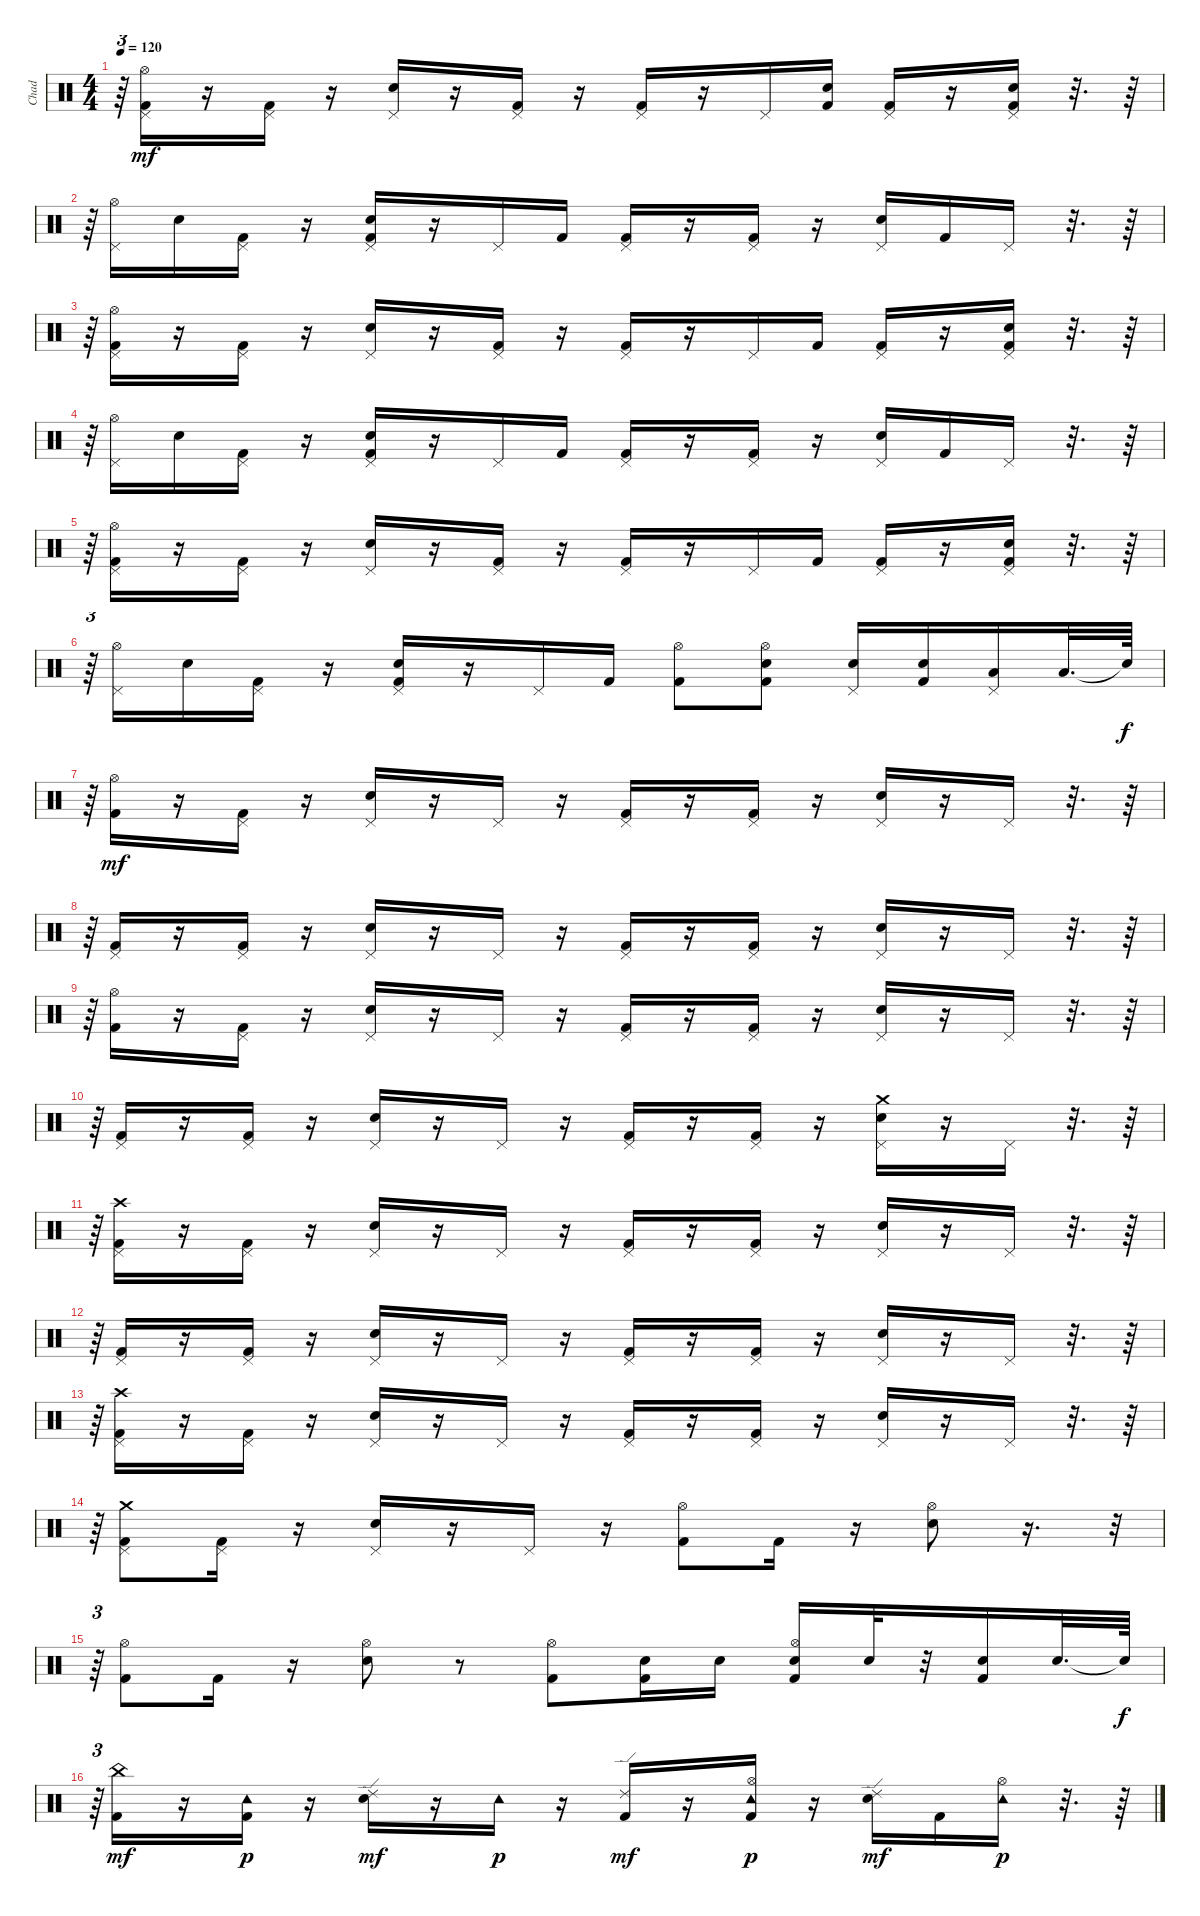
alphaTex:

\track ("Chad" "Chad") {instrument percussion}
\staff {score}
\articulation defaults
\ts (4 4)
\tempo 120
\clef neutral
\ks c
r.64{tu (3 2) dy mf} ("Kick (hit) 2" "Pedal Hi-Hat (hit)" "Hi-Hat (open)").16 r.16 ("Kick (hit) 2" "Pedal Hi-Hat (hit)").16 r.16 ("Snare (hit) 2" "Pedal Hi-Hat (hit)").16 r.16 ("Kick (hit) 2" "Pedal Hi-Hat (hit)").16 r.16 ("Kick (hit) 2" "Pedal Hi-Hat (hit)").16 r.16 "Pedal Hi-Hat (hit)".16 ("Kick (hit) 2" "Snare (hit) 2").16 ("Kick (hit) 2" "Pedal Hi-Hat (hit)").16 r.16 ("Kick (hit) 2" "Snare (hit) 2" "Pedal Hi-Hat (hit)").16 r.32{d} r.64 |
r.64{tu (3 2)} ("Pedal Hi-Hat (hit)" "Hi-Hat (open)").16 "Snare (hit) 2".16 ("Kick (hit) 2" "Pedal Hi-Hat (hit)").16 r.16 ("Kick (hit) 2" "Snare (hit) 2" "Pedal Hi-Hat (hit)").16 r.16 "Pedal Hi-Hat (hit)".16 "Kick (hit) 2".16 ("Kick (hit) 2" "Pedal Hi-Hat (hit)").16 r.16 ("Kick (hit) 2" "Pedal Hi-Hat (hit)").16 r.16 ("Snare (hit) 2" "Pedal Hi-Hat (hit)").16 "Kick (hit) 2".16 "Pedal Hi-Hat (hit)".16 r.32{d} r.64 |
r.64{tu (3 2)} ("Kick (hit) 2" "Pedal Hi-Hat (hit)" "Hi-Hat (open)").16 r.16 ("Kick (hit) 2" "Pedal Hi-Hat (hit)").16 r.16 ("Snare (hit) 2" "Pedal Hi-Hat (hit)").16 r.16 ("Kick (hit) 2" "Pedal Hi-Hat (hit)").16 r.16 ("Kick (hit) 2" "Pedal Hi-Hat (hit)").16 r.16 "Pedal Hi-Hat (hit)".16 "Kick (hit) 2".16 ("Kick (hit) 2" "Pedal Hi-Hat (hit)").16 r.16 ("Kick (hit) 2" "Snare (hit) 2" "Pedal Hi-Hat (hit)").16 r.32{d} r.64 |
r.64{tu (3 2)} ("Pedal Hi-Hat (hit)" "Hi-Hat (open)").16 "Snare (hit) 2".16 ("Kick (hit) 2" "Pedal Hi-Hat (hit)").16 r.16 ("Kick (hit) 2" "Snare (hit) 2" "Pedal Hi-Hat (hit)").16 r.16 "Pedal Hi-Hat (hit)".16 "Kick (hit) 2".16 ("Kick (hit) 2" "Pedal Hi-Hat (hit)").16 r.16 ("Kick (hit) 2" "Pedal Hi-Hat (hit)").16 r.16 ("Snare (hit) 2" "Pedal Hi-Hat (hit)").16 "Kick (hit) 2".16 "Pedal Hi-Hat (hit)".16 r.32{d} r.64 |
r.64{tu (3 2)} ("Kick (hit) 2" "Pedal Hi-Hat (hit)" "Hi-Hat (open)").16 r.16 ("Kick (hit) 2" "Pedal Hi-Hat (hit)").16 r.16 ("Snare (hit) 2" "Pedal Hi-Hat (hit)").16 r.16 ("Kick (hit) 2" "Pedal Hi-Hat (hit)").16 r.16 ("Kick (hit) 2" "Pedal Hi-Hat (hit)").16 r.16 "Pedal Hi-Hat (hit)".16 "Kick (hit) 2".16 ("Kick (hit) 2" "Pedal Hi-Hat (hit)").16 r.16 ("Kick (hit) 2" "Snare (hit) 2" "Pedal Hi-Hat (hit)").16 r.32{d} r.64 |
r.64{tu (3 2)} ("Pedal Hi-Hat (hit)" "Hi-Hat (open)").16 "Snare (hit) 2".16 ("Kick (hit) 2" "Pedal Hi-Hat (hit)").16 r.16 ("Kick (hit) 2" "Snare (hit) 2" "Pedal Hi-Hat (hit)").16 r.16 "Pedal Hi-Hat (hit)".16 "Kick (hit) 2".16 ("Kick (hit) 2" "Hi-Hat (open)").8 ("Kick (hit) 2" "Snare (hit) 2" "Hi-Hat (open)").8 ("Snare (hit) 2" "Pedal Hi-Hat (hit)").16 ("Kick (hit) 2" "Snare (hit) 2").16 ("Low Floor Tom (hit)" "Pedal Hi-Hat (hit)").16 "Low Floor Tom (hit)".32{d} "Snare (hit)"{t}.64{dy f} |
r.64{tu (3 2)} ("Kick (hit) 2" "Hi-Hat (open)").16{dy mf} r.16 ("Kick (hit) 2" "Pedal Hi-Hat (hit)").16 r.16 ("Snare (hit) 2" "Pedal Hi-Hat (hit)").16 r.16 "Pedal Hi-Hat (hit)".16 r.16 ("Kick (hit) 2" "Pedal Hi-Hat (hit)").16 r.16 ("Kick (hit) 2" "Pedal Hi-Hat (hit)").16 r.16 ("Snare (hit) 2" "Pedal Hi-Hat (hit)").16 r.16 "Pedal Hi-Hat (hit)".16 r.32{d} r.64 |
r.64{tu (3 2)} ("Kick (hit) 2" "Pedal Hi-Hat (hit)").16 r.16 ("Kick (hit) 2" "Pedal Hi-Hat (hit)").16 r.16 ("Snare (hit) 2" "Pedal Hi-Hat (hit)").16 r.16 "Pedal Hi-Hat (hit)".16 r.16 ("Kick (hit) 2" "Pedal Hi-Hat (hit)").16 r.16 ("Kick (hit) 2" "Pedal Hi-Hat (hit)").16 r.16 ("Snare (hit) 2" "Pedal Hi-Hat (hit)").16 r.16 "Pedal Hi-Hat (hit)".16 r.32{d} r.64 |
r.64{tu (3 2)} ("Kick (hit) 2" "Hi-Hat (open)").16 r.16 ("Kick (hit) 2" "Pedal Hi-Hat (hit)").16 r.16 ("Snare (hit) 2" "Pedal Hi-Hat (hit)").16 r.16 "Pedal Hi-Hat (hit)".16 r.16 ("Kick (hit) 2" "Pedal Hi-Hat (hit)").16 r.16 ("Kick (hit) 2" "Pedal Hi-Hat (hit)").16 r.16 ("Snare (hit) 2" "Pedal Hi-Hat (hit)").16 r.16 "Pedal Hi-Hat (hit)".16 r.32{d} r.64 |
r.64{tu (3 2)} ("Kick (hit) 2" "Pedal Hi-Hat (hit)").16 r.16 ("Kick (hit) 2" "Pedal Hi-Hat (hit)").16 r.16 ("Snare (hit) 2" "Pedal Hi-Hat (hit)").16 r.16 "Pedal Hi-Hat (hit)".16 r.16 ("Kick (hit) 2" "Pedal Hi-Hat (hit)").16 r.16 ("Kick (hit) 2" "Pedal Hi-Hat (hit)").16 r.16 ("Snare (hit) 2" "Pedal Hi-Hat (hit)" "Crash medium (hit)").16 r.16 "Pedal Hi-Hat (hit)".16 r.32{d} r.64 |
r.64{tu (3 2)} ("Kick (hit) 2" "Pedal Hi-Hat (hit)" "Crash high (hit)").16 r.16 ("Kick (hit) 2" "Pedal Hi-Hat (hit)").16 r.16 ("Snare (hit) 2" "Pedal Hi-Hat (hit)").16 r.16 "Pedal Hi-Hat (hit)".16 r.16 ("Kick (hit) 2" "Pedal Hi-Hat (hit)").16 r.16 ("Kick (hit) 2" "Pedal Hi-Hat (hit)").16 r.16 ("Snare (hit) 2" "Pedal Hi-Hat (hit)").16 r.16 "Pedal Hi-Hat (hit)".16 r.32{d} r.64 |
r.64{tu (3 2)} ("Kick (hit) 2" "Pedal Hi-Hat (hit)").16 r.16 ("Kick (hit) 2" "Pedal Hi-Hat (hit)").16 r.16 ("Snare (hit) 2" "Pedal Hi-Hat (hit)").16 r.16 "Pedal Hi-Hat (hit)".16 r.16 ("Kick (hit) 2" "Pedal Hi-Hat (hit)").16 r.16 ("Kick (hit) 2" "Pedal Hi-Hat (hit)").16 r.16 ("Snare (hit) 2" "Pedal Hi-Hat (hit)").16 r.16 "Pedal Hi-Hat (hit)".16 r.32{d} r.64 |
r.64{tu (3 2)} ("Kick (hit) 2" "Pedal Hi-Hat (hit)" "Crash high (hit)").16 r.16 ("Kick (hit) 2" "Pedal Hi-Hat (hit)").16 r.16 ("Snare (hit) 2" "Pedal Hi-Hat (hit)").16 r.16 "Pedal Hi-Hat (hit)".16 r.16 ("Kick (hit) 2" "Pedal Hi-Hat (hit)").16 r.16 ("Kick (hit) 2" "Pedal Hi-Hat (hit)").16 r.16 ("Snare (hit) 2" "Pedal Hi-Hat (hit)").16 r.16 "Pedal Hi-Hat (hit)".16 r.32{d} r.64 |
r.64{tu (3 2)} ("Kick (hit) 2" "Pedal Hi-Hat (hit)" "Crash medium (hit)").8 ("Kick (hit) 2" "Pedal Hi-Hat (hit)").16 r.16 ("Snare (hit) 2" "Pedal Hi-Hat (hit)").16 r.16 "Pedal Hi-Hat (hit)".16 r.16 ("Kick (hit) 2" "Hi-Hat (open)").8 "Kick (hit) 2".16 r.16 ("Snare (hit) 2" "Hi-Hat (open)").8 r.16{d} r.32{tu (3 2)} |
r.64{tu (3 2)} ("Hi-Hat (open)" "Kick (hit) 2").8 "Kick (hit) 2".16 r.16 ("Snare (hit) 2" "Hi-Hat (open)").8 r.8 ("Kick (hit) 2" "Hi-Hat (open)").8 ("Kick (hit) 2" "Snare (hit) 2").16 "Snare (hit) 2".16 ("Kick (hit) 2" "Snare (hit) 2" "Hi-Hat (open)").16 "Snare (hit) 2".32 r.32 ("Kick (hit) 2" "Snare (hit) 2").16 "Snare (hit) 2".32{d} "Snare (hit)"{t}.64{dy f} |
r.64{tu (3 2)} ("Kick (hit) 2" "China (hit)").16{dy mf} r.16 ("Kick (hit) 2" "Tambourine (hit)").16{dy p} r.16 ("Snare (hit) 2" "Ride (edge) 2").16{dy mf} r.16 "Tambourine (hit)".16{dy p} r.16 ("Kick (hit) 2" "Ride (edge) 2").16{dy mf} r.16 ("Kick (hit) 2" "Hi-Hat (open)" "Tambourine (hit)").16{dy p} r.16 ("Snare (hit) 2" "Ride (edge) 2").16{dy mf} "Kick (hit) 2".16 ("Hi-Hat (open)" "Tambourine (hit)").16{dy p} r.32{d} r.64
